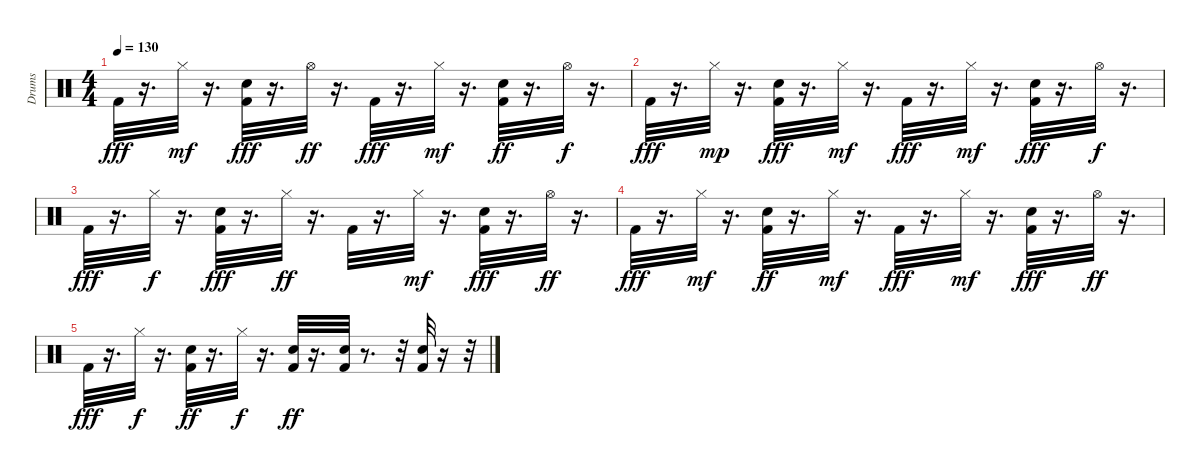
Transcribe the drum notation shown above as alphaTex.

\track ("Drums               " "Drums     ") {instrument percussion}
\staff {score}
\articulation defaults
\ts (4 4)
\tempo 130
\clef neutral
\ks c "Kick (hit) 2".32{dy fff}
r.16{d} "Hi-Hat (closed)".32{dy mf} r.16{d} ("Kick (hit) 2" "Snare (hit) 2").32{dy fff} r.16{d} "Hi-Hat (open)".32{dy ff} r.16{d} "Kick (hit) 2".32{dy fff} r.16{d} "Hi-Hat (closed)".32{dy mf} r.16{d} ("Kick (hit) 2" "Snare (hit) 2").32{dy ff} r.16{d} "Hi-Hat (open)".32{dy f} r.16{d} |
"Kick (hit) 2".32{dy fff} r.16{d} "Hi-Hat (closed)".32{dy mp} r.16{d} ("Kick (hit) 2" "Snare (hit) 2").32{dy fff} r.16{d} "Hi-Hat (closed)".32{dy mf} r.16{d} "Kick (hit) 2".32{dy fff} r.16{d} "Hi-Hat (closed)".32{dy mf} r.16{d} ("Kick (hit) 2" "Snare (hit) 2").32{dy fff} r.16{d} "Hi-Hat (open)".32{dy f} r.16{d} |
"Kick (hit) 2".32{dy fff} r.16{d} "Hi-Hat (closed)".32{dy f} r.16{d} ("Kick (hit) 2" "Snare (hit) 2").32{dy fff} r.16{d} "Hi-Hat (closed)".32{dy ff} r.16{d} "Kick (hit) 2".32 r.16{d} "Hi-Hat (closed)".32{dy mf} r.16{d} ("Kick (hit) 2" "Snare (hit) 2").32{dy fff} r.16{d} "Hi-Hat (open)".32{dy ff} r.16{d} |
"Kick (hit) 2".32{dy fff} r.16{d} "Hi-Hat (closed)".32{dy mf} r.16{d} ("Kick (hit) 2" "Snare (hit) 2").32{dy ff} r.16{d} "Hi-Hat (closed)".32{dy mf} r.16{d} "Kick (hit) 2".32{dy fff} r.16{d} "Hi-Hat (closed)".32{dy mf} r.16{d} ("Kick (hit) 2" "Snare (hit) 2").32{dy fff} r.16{d} "Hi-Hat (open)".32{dy ff} r.16{d} |
"Kick (hit) 2".32{dy fff} r.16{d} "Hi-Hat (closed)".32{dy f} r.16{d} ("Kick (hit) 2" "Snare (hit) 2").32{dy ff} r.16{d} "Hi-Hat (closed)".32{dy f} r.16{d} ("Kick (hit) 2" "Snare (hit) 2").32{dy ff} r.16{d} ("Kick (hit) 2" "Snare (hit) 2").32 r.8{d} r.32 ("Kick (hit) 2" "Snare (hit) 2").32 r.16 r.32
